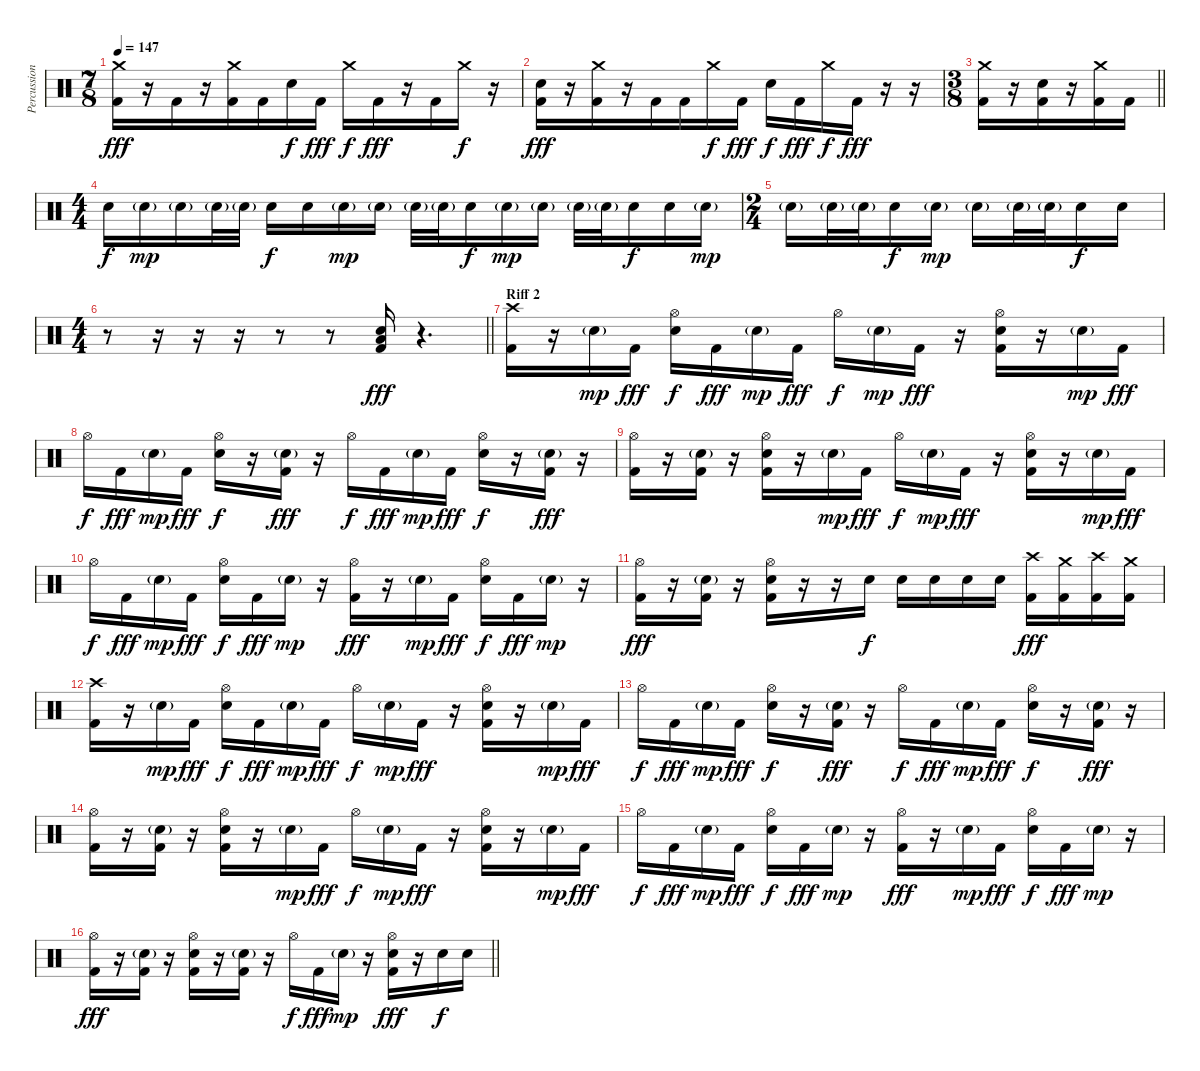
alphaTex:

\track ("Percussion" "Percussion") {instrument percussion}
\staff {score}
\articulation defaults
\ts (7 8)
\tempo 147
\clef neutral
\ks c
("Crash medium (hit)" "Kick (hit) 2").16{dy fff} r.16 "Kick (hit) 2".16 r.16 ("Crash medium (hit)" "Kick (hit) 2").16 "Kick (hit) 2".16 "Electric Snare (hit)".16{dy f} "Kick (hit) 2".16{dy fff} "Crash medium (hit)".16{dy f} "Kick (hit) 2".16{dy fff} r.16 "Kick (hit) 2".16 "Crash medium (hit)".16{dy f} r.16 |
("Electric Snare (hit)" "Kick (hit) 2").16{dy fff} r.16 ("Crash medium (hit)" "Kick (hit) 2").16 r.16 "Kick (hit) 2".16 "Kick (hit) 2".16 "Crash medium (hit)".16{dy f} "Kick (hit) 2".16{dy fff} "Electric Snare (hit)".16{dy f} "Kick (hit) 2".16{dy fff} "Crash medium (hit)".16{dy f} "Kick (hit) 2".16{dy fff} r.16 r.16 |
\ts (3 8)
\barLineRight lightlight
("Crash medium (hit)" "Kick (hit) 2").16 r.16 ("Electric Snare (hit)" "Kick (hit) 2").16 r.16 ("Crash medium (hit)" "Kick (hit) 2").16 "Kick (hit) 2".16 |
\ts (4 4)
"Electric Snare (hit)".16{dy f} "Electric Snare (hit)"{g}.16{dy mp} "Electric Snare (hit)"{g}.16 "Electric Snare (hit)"{g}.32 "Electric Snare (hit)"{g}.32 "Electric Snare (hit)".16{dy f} "Electric Snare (hit)".16 "Electric Snare (hit)"{g}.16{dy mp} "Electric Snare (hit)"{g}.16 "Electric Snare (hit)"{g}.32 "Electric Snare (hit)"{g}.32 "Electric Snare (hit)".16{dy f} "Electric Snare (hit)"{g}.16{dy mp} "Electric Snare (hit)"{g}.16 "Electric Snare (hit)"{g}.32 "Electric Snare (hit)"{g}.32 "Electric Snare (hit)".16{dy f} "Electric Snare (hit)".16 "Electric Snare (hit)"{g}.16{dy mp} |
\ts (2 4)
"Electric Snare (hit)"{g}.16 "Electric Snare (hit)"{g}.32 "Electric Snare (hit)"{g}.32 "Electric Snare (hit)".16{dy f} "Electric Snare (hit)"{g}.16{dy mp} "Electric Snare (hit)"{g}.16 "Electric Snare (hit)"{g}.32 "Electric Snare (hit)"{g}.32 "Electric Snare (hit)".16{dy f} "Electric Snare (hit)".16 |
\ts (4 4)
\barLineRight lightlight
r.8 r.16 r.16 r.16 r.8 r.8 ("Electric Snare (hit)" "Low Floor Tom (hit)" "Kick (hit) 2").16{dy fff} r.4{d} |
\section ("" "Riff 2")
("Crash high (hit)" "Kick (hit) 2").16 r.16 "Electric Snare (hit)"{g}.16{dy mp} "Kick (hit) 2".16{dy fff} ("Hi-Hat (open)" "Electric Snare (hit)").16{dy f} "Kick (hit) 2".16{dy fff} "Electric Snare (hit)"{g}.16{dy mp} "Kick (hit) 2".16{dy fff} "Hi-Hat (open)".16{dy f} "Electric Snare (hit)"{g}.16{dy mp} "Kick (hit) 2".16{dy fff} r.16 ("Hi-Hat (open)" "Electric Snare (hit)" "Kick (hit) 2").16 r.16 "Electric Snare (hit)"{g}.16{dy mp} "Kick (hit) 2".16{dy fff} |
"Hi-Hat (open)".16{dy f} "Kick (hit) 2".16{dy fff} "Electric Snare (hit)"{g}.16{dy mp} "Kick (hit) 2".16{dy fff} ("Hi-Hat (open)" "Electric Snare (hit)").16{dy f} r.16 ("Electric Snare (hit)"{g} "Kick (hit) 2").16{dy fff} r.16 "Hi-Hat (open)".16{dy f} "Kick (hit) 2".16{dy fff} "Electric Snare (hit)"{g}.16{dy mp} "Kick (hit) 2".16{dy fff} ("Hi-Hat (open)" "Electric Snare (hit)").16{dy f} r.16 ("Electric Snare (hit)"{g} "Kick (hit) 2").16{dy fff} r.16 |
("Hi-Hat (open)" "Kick (hit) 2").16 r.16 ("Electric Snare (hit)"{g} "Kick (hit) 2").16 r.16 ("Hi-Hat (open)" "Electric Snare (hit)" "Kick (hit) 2").16 r.16 "Electric Snare (hit)"{g}.16{dy mp} "Kick (hit) 2".16{dy fff} "Hi-Hat (open)".16{dy f} "Electric Snare (hit)"{g}.16{dy mp} "Kick (hit) 2".16{dy fff} r.16 ("Hi-Hat (open)" "Electric Snare (hit)" "Kick (hit) 2").16 r.16 "Electric Snare (hit)"{g}.16{dy mp} "Kick (hit) 2".16{dy fff} |
"Hi-Hat (open)".16{dy f} "Kick (hit) 2".16{dy fff} "Electric Snare (hit)"{g}.16{dy mp} "Kick (hit) 2".16{dy fff} ("Hi-Hat (open)" "Electric Snare (hit)").16{dy f} "Kick (hit) 2".16{dy fff} "Electric Snare (hit)"{g}.16{dy mp} r.16 ("Hi-Hat (open)" "Kick (hit) 2").16{dy fff} r.16 "Electric Snare (hit)"{g}.16{dy mp} "Kick (hit) 2".16{dy fff} ("Hi-Hat (open)" "Electric Snare (hit)").16{dy f} "Kick (hit) 2".16{dy fff} "Electric Snare (hit)"{g}.16{dy mp} r.16 |
("Hi-Hat (open)" "Kick (hit) 2").16{dy fff} r.16 ("Electric Snare (hit)"{g} "Kick (hit) 2").16 r.16 ("Hi-Hat (open)" "Electric Snare (hit)" "Kick (hit) 2").16 r.16 r.16 "Electric Snare (hit)".16{dy f} "Electric Snare (hit)".16 "Electric Snare (hit)".16 "Electric Snare (hit)".16 "Electric Snare (hit)".16 ("Crash high (hit)" "Kick (hit) 2").16{dy fff} ("Crash medium (hit)" "Kick (hit) 2").16 ("Crash high (hit)" "Kick (hit) 2").16 ("Crash medium (hit)" "Kick (hit) 2").16 |
("Crash high (hit)" "Kick (hit) 2").16 r.16 "Electric Snare (hit)"{g}.16{dy mp} "Kick (hit) 2".16{dy fff} ("Hi-Hat (open)" "Electric Snare (hit)").16{dy f} "Kick (hit) 2".16{dy fff} "Electric Snare (hit)"{g}.16{dy mp} "Kick (hit) 2".16{dy fff} "Hi-Hat (open)".16{dy f} "Electric Snare (hit)"{g}.16{dy mp} "Kick (hit) 2".16{dy fff} r.16 ("Hi-Hat (open)" "Electric Snare (hit)" "Kick (hit) 2").16 r.16 "Electric Snare (hit)"{g}.16{dy mp} "Kick (hit) 2".16{dy fff} |
"Hi-Hat (open)".16{dy f} "Kick (hit) 2".16{dy fff} "Electric Snare (hit)"{g}.16{dy mp} "Kick (hit) 2".16{dy fff} ("Hi-Hat (open)" "Electric Snare (hit)").16{dy f} r.16 ("Electric Snare (hit)"{g} "Kick (hit) 2").16{dy fff} r.16 "Hi-Hat (open)".16{dy f} "Kick (hit) 2".16{dy fff} "Electric Snare (hit)"{g}.16{dy mp} "Kick (hit) 2".16{dy fff} ("Hi-Hat (open)" "Electric Snare (hit)").16{dy f} r.16 ("Electric Snare (hit)"{g} "Kick (hit) 2").16{dy fff} r.16 |
("Hi-Hat (open)" "Kick (hit) 2").16 r.16 ("Electric Snare (hit)"{g} "Kick (hit) 2").16 r.16 ("Hi-Hat (open)" "Electric Snare (hit)" "Kick (hit) 2").16 r.16 "Electric Snare (hit)"{g}.16{dy mp} "Kick (hit) 2".16{dy fff} "Hi-Hat (open)".16{dy f} "Electric Snare (hit)"{g}.16{dy mp} "Kick (hit) 2".16{dy fff} r.16 ("Hi-Hat (open)" "Electric Snare (hit)" "Kick (hit) 2").16 r.16 "Electric Snare (hit)"{g}.16{dy mp} "Kick (hit) 2".16{dy fff} |
"Hi-Hat (open)".16{dy f} "Kick (hit) 2".16{dy fff} "Electric Snare (hit)"{g}.16{dy mp} "Kick (hit) 2".16{dy fff} ("Hi-Hat (open)" "Electric Snare (hit)").16{dy f} "Kick (hit) 2".16{dy fff} "Electric Snare (hit)"{g}.16{dy mp} r.16 ("Hi-Hat (open)" "Kick (hit) 2").16{dy fff} r.16 "Electric Snare (hit)"{g}.16{dy mp} "Kick (hit) 2".16{dy fff} ("Hi-Hat (open)" "Electric Snare (hit)").16{dy f} "Kick (hit) 2".16{dy fff} "Electric Snare (hit)"{g}.16{dy mp} r.16 |
\barLineRight lightlight
("Hi-Hat (open)" "Kick (hit) 2").16{dy fff} r.16 ("Electric Snare (hit)"{g} "Kick (hit) 2").16 r.16 ("Hi-Hat (open)" "Electric Snare (hit)" "Kick (hit) 2").16 r.16 ("Electric Snare (hit)"{g} "Kick (hit) 2").16 r.16 "Hi-Hat (open)".16{dy f} "Kick (hit) 2".16{dy fff} "Electric Snare (hit)"{g}.16{dy mp} r.16 ("Hi-Hat (open)" "Electric Snare (hit)" "Kick (hit) 2").16{dy fff} r.16 "Electric Snare (hit)".16{dy f} "Electric Snare (hit)".16
